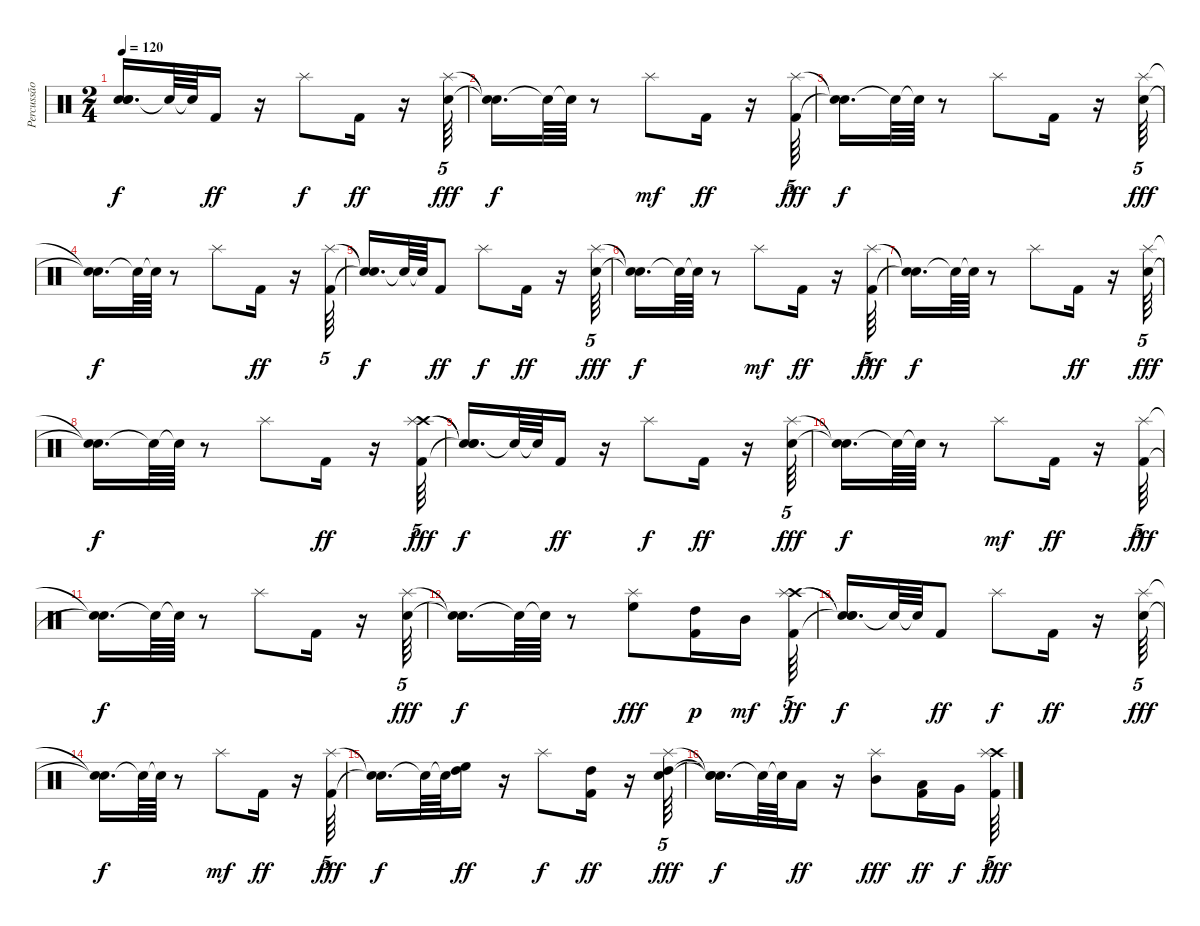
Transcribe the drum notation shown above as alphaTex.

\track ("Percussão" "Percussão") {instrument percussion}
\staff {score}
\articulation defaults
\ts (2 4)
\tempo 120
\clef neutral
\ks c
("Snare (hit)"{t} "Snare (hit)"{t} "Snare (hit)"{t}).16{d dy f} "Snare (hit)"{t}.64 "Snare (hit)"{t}.64 "Kick (hit) 2".16{dy ff} r.16 "Splash (hit)".8{dy f} "Kick (hit) 2".16{dy ff} r.16 ("Snare (hit) 2" "Splash (hit)").64{tu (5 4) dy fff} |
("Snare (hit)"{t} "Snare (hit)"{t}).16{d dy f} "Snare (hit)"{t}.64 "Snare (hit)"{t}.64 r.8 "Splash (hit)".8{dy mf} "Kick (hit) 2".16{dy ff} r.16 ("Kick (hit) 2" "Splash (hit)").64{tu (5 4) dy fff} |
("Snare (hit)"{t} "Snare (hit)"{t}).16{d dy f} "Snare (hit)"{t}.64 "Snare (hit)"{t}.64 r.8 "Splash (hit)".8 "Kick (hit) 2".16 r.16 ("Snare (hit) 2" "Splash (hit)").64{tu (5 4) dy fff} |
("Snare (hit)"{t} "Snare (hit)"{t}).16{d dy f} "Snare (hit)"{t}.64 "Snare (hit)"{t}.64 r.8 "Splash (hit)".8 "Kick (hit) 2".16{dy ff} r.16 ("Kick (hit) 2" "Splash (hit)").64{tu (5 4)} |
("Snare (hit)"{t} "Snare (hit)"{t}).16{d dy f} "Snare (hit)"{t}.64 "Snare (hit)"{t}.64 "Kick (hit) 2".8{dy ff} "Splash (hit)".8{dy f} "Kick (hit) 2".16{dy ff} r.16 ("Snare (hit) 2" "Splash (hit)").64{tu (5 4) dy fff} |
("Snare (hit)"{t} "Snare (hit)"{t}).16{d dy f} "Snare (hit)"{t}.64 "Snare (hit)"{t}.64 r.8 "Splash (hit)".8{dy mf} "Kick (hit) 2".16{dy ff} r.16 ("Kick (hit) 2" "Splash (hit)").64{tu (5 4) dy fff} |
("Snare (hit)"{t} "Snare (hit)"{t}).16{d dy f} "Snare (hit)"{t}.64 "Snare (hit)"{t}.64 r.8 "Splash (hit)".8 "Kick (hit) 2".16{dy ff} r.16 ("Snare (hit) 2" "Splash (hit)").64{tu (5 4) dy fff} |
("Snare (hit)"{t} "Snare (hit)"{t}).16{d dy f} "Snare (hit)"{t}.64 "Snare (hit)"{t}.64 r.8 "Splash (hit)".8 "Kick (hit) 2".16{dy ff} r.16 ("Crash high (hit)" "Kick (hit) 2" "Splash (hit)").64{tu (5 4) dy fff} |
("Snare (hit)"{t} "Snare (hit)"{t} "Snare (hit)"{t}).16{d dy f} "Snare (hit)"{t}.64 "Snare (hit)"{t}.64 "Kick (hit) 2".16{dy ff} r.16 "Splash (hit)".8{dy f} "Kick (hit) 2".16{dy ff} r.16 ("Snare (hit) 2" "Splash (hit)").64{tu (5 4) dy fff} |
("Snare (hit)"{t} "Snare (hit)"{t}).16{d dy f} "Snare (hit)"{t}.64 "Snare (hit)"{t}.64 r.8 "Splash (hit)".8{dy mf} "Kick (hit) 2".16{dy ff} r.16 ("Kick (hit) 2" "Splash (hit)").64{tu (5 4) dy fff} |
("Snare (hit)"{t} "Snare (hit)"{t}).16{d dy f} "Snare (hit)"{t}.64 "Snare (hit)"{t}.64 r.8 "Splash (hit)".8 "Kick (hit) 2".16 r.16 ("Snare (hit) 2" "Splash (hit)").64{tu (5 4) dy fff} |
("Snare (hit)"{t} "Snare (hit)"{t}).16{d dy f} "Snare (hit)"{t}.64 "Snare (hit)"{t}.64 r.8 ("Splash (hit)" "High Floor Tom (hit)").8{dy fff} ("Kick (hit) 2" "High Tom (hit)").16{dy p} "Mid Tom (hit)".16{dy mf} ("Crash high (hit)" "Kick (hit) 2" "Splash (hit)").64{tu (5 4) dy ff} |
("Snare (hit)"{t} "Snare (hit)"{t} "Snare (hit)"{t}).16{d dy f} "Snare (hit)"{t}.64 "Snare (hit)"{t}.64 "Kick (hit) 2".8{dy ff} "Splash (hit)".8{dy f} "Kick (hit) 2".16{dy ff} r.16 ("Snare (hit) 2" "Splash (hit)").64{tu (5 4) dy fff} |
("Snare (hit)"{t} "Snare (hit)"{t}).16{d dy f} "Snare (hit)"{t}.64 "Snare (hit)"{t}.64 r.8 "Splash (hit)".8{dy mf} "Kick (hit) 2".16{dy ff} r.16 ("Kick (hit) 2" "Splash (hit)").64{tu (5 4) dy fff} |
("Snare (hit)"{t} "Snare (hit)"{t}).16{d dy f} "Snare (hit)"{t}.64 "Snare (hit)"{t}.64 ("High Tom (hit)" "High Floor Tom (hit)").16{dy ff} r.16 "Splash (hit)".8{dy f} ("Kick (hit) 2" "High Tom (hit)").16{dy ff} r.16 ("High Tom (hit)" "Snare (hit) 2" "Splash (hit)").64{tu (5 4) dy fff} |
("Snare (hit)"{t} "Snare (hit)"{t} "Snare (hit)"{t}).16{d dy f} "Snare (hit)"{t}.64 "Snare (hit)"{t}.64 "Low Tom (hit)".16{dy ff} r.16 ("Mid Tom (hit)" "Splash (hit)").8{dy fff} ("Low Tom (hit)" "Kick (hit) 2").16{dy ff} "Very Low Tom (hit)".16{dy f} ("Crash high (hit)" "Kick (hit) 2" "Splash (hit)").64{tu (5 4) dy fff}
